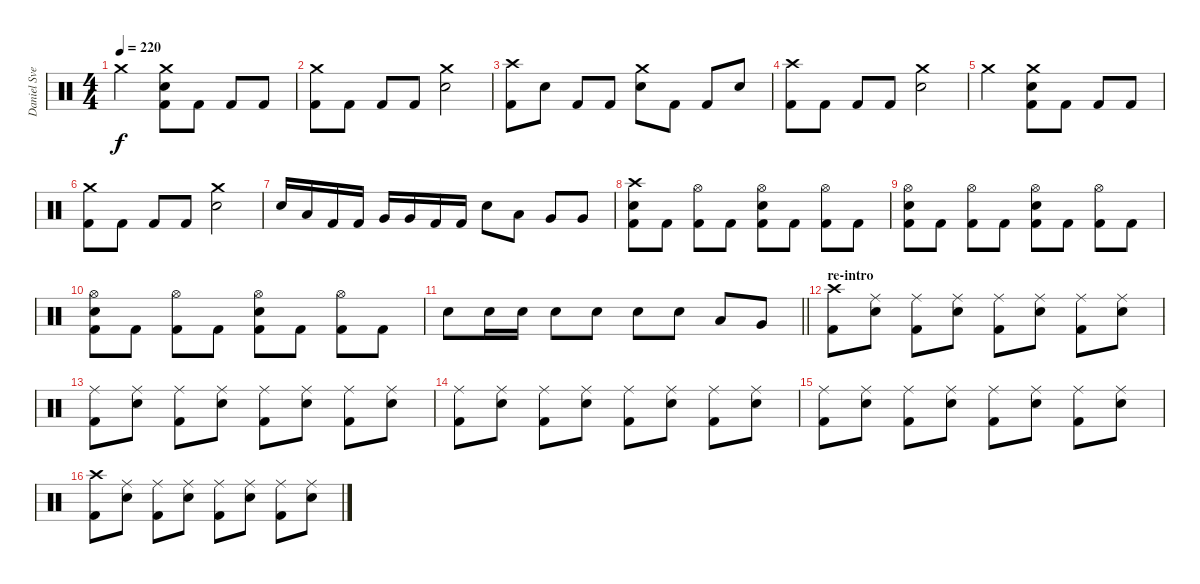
\track ("Daniel Svensson" "Daniel Sve") {instrument percussion}
\staff {score}
\articulation defaults
\ts (4 4)
\tempo 220
\clef neutral
\ks c "Crash medium (hit)".2{dy f}
("Crash medium (hit)" "Electric Snare (hit)" "Kick (hit) 2").8 "Kick (hit) 2".8 "Kick (hit) 2".8 "Kick (hit) 2".8 |
("Crash medium (hit)" "Kick (hit) 2").8 "Kick (hit) 2".8 "Kick (hit) 2".8 "Kick (hit) 2".8 ("Crash medium (hit)" "Electric Snare (hit)").2 |
("Crash high (hit)" "Kick (hit) 2").8 "Electric Snare (hit)".8 "Kick (hit) 2".8 "Kick (hit) 2".8 ("Crash medium (hit)" "Electric Snare (hit)").8 "Kick (hit) 2".8 "Kick (hit) 2".8 "Electric Snare (hit)".8 |
("Crash high (hit)" "Kick (hit) 2").8 "Kick (hit) 2".8 "Kick (hit) 2".8 "Kick (hit) 2".8 ("Crash medium (hit)" "Electric Snare (hit)").2 |
"Crash medium (hit)".2 ("Crash medium (hit)" "Electric Snare (hit)" "Kick (hit) 2").8 "Kick (hit) 2".8 "Kick (hit) 2".8 "Kick (hit) 2".8 |
("Crash medium (hit)" "Kick (hit) 2").8 "Kick (hit) 2".8 "Kick (hit) 2".8 "Kick (hit) 2".8 ("Crash medium (hit)" "Electric Snare (hit)").2 |
"Electric Snare (hit)".16 "Low Tom (hit)".16 "Kick (hit) 2".16 "Kick (hit) 2".16 "Very Low Tom (hit)".16 "Very Low Tom (hit)".16 "Kick (hit) 2".16 "Kick (hit) 2".16 "Electric Snare (hit)".8 "Low Tom (hit)".8 "Very Low Tom (hit)".8 "Very Low Tom (hit)".8 |
("Crash high (hit)" "Electric Snare (hit)" "Kick (hit) 2").8 "Kick (hit) 2".8 ("Hi-Hat (open)" "Kick (hit) 2").8 "Kick (hit) 2".8 ("Hi-Hat (open)" "Electric Snare (hit)" "Kick (hit) 2").8 "Kick (hit) 2".8 ("Hi-Hat (open)" "Kick (hit) 2").8 "Kick (hit) 2".8 |
("Hi-Hat (open)" "Electric Snare (hit)" "Kick (hit) 2").8 "Kick (hit) 2".8 ("Hi-Hat (open)" "Kick (hit) 2").8 "Kick (hit) 2".8 ("Hi-Hat (open)" "Electric Snare (hit)" "Kick (hit) 2").8 "Kick (hit) 2".8 ("Hi-Hat (open)" "Kick (hit) 2").8 "Kick (hit) 2".8 |
("Hi-Hat (open)" "Electric Snare (hit)" "Kick (hit) 2").8 "Kick (hit) 2".8 ("Hi-Hat (open)" "Kick (hit) 2").8 "Kick (hit) 2".8 ("Hi-Hat (open)" "Electric Snare (hit)" "Kick (hit) 2").8 "Kick (hit) 2".8 ("Hi-Hat (open)" "Kick (hit) 2").8 "Kick (hit) 2".8 |
\barLineRight lightlight "Electric Snare (hit)".8 "Electric Snare (hit)".16 "Electric Snare (hit)".16 "Electric Snare (hit)".8 "Electric Snare (hit)".8 "Electric Snare (hit)".8 "Electric Snare (hit)".8 "Low Tom (hit)".8 "Very Low Tom (hit)".8
|
\section ("" "re-intro")
("Crash high (hit)" "Kick (hit) 2").8 ("Ride (middle)" "Electric Snare (hit)").8 ("Ride (middle)" "Kick (hit) 2").8 ("Ride (middle)" "Electric Snare (hit)").8 ("Ride (middle)" "Kick (hit) 2").8 ("Ride (middle)" "Electric Snare (hit)").8 ("Ride (middle)" "Kick (hit) 2").8 ("Ride (middle)" "Electric Snare (hit)").8 |
("Ride (middle)" "Kick (hit) 2").8 ("Ride (middle)" "Electric Snare (hit)").8 ("Ride (middle)" "Kick (hit) 2").8 ("Ride (middle)" "Electric Snare (hit)").8 ("Ride (middle)" "Kick (hit) 2").8 ("Ride (middle)" "Electric Snare (hit)").8 ("Ride (middle)" "Kick (hit) 2").8 ("Ride (middle)" "Electric Snare (hit)").8 |
("Ride (middle)" "Kick (hit) 2").8 ("Ride (middle)" "Electric Snare (hit)").8 ("Ride (middle)" "Kick (hit) 2").8 ("Ride (middle)" "Electric Snare (hit)").8 ("Ride (middle)" "Kick (hit) 2").8 ("Ride (middle)" "Electric Snare (hit)").8 ("Ride (middle)" "Kick (hit) 2").8 ("Ride (middle)" "Electric Snare (hit)").8 |
("Ride (middle)" "Kick (hit) 2").8 ("Ride (middle)" "Electric Snare (hit)").8 ("Ride (middle)" "Kick (hit) 2").8 ("Ride (middle)" "Electric Snare (hit)").8 ("Ride (middle)" "Kick (hit) 2").8 ("Ride (middle)" "Electric Snare (hit)").8 ("Ride (middle)" "Kick (hit) 2").8 ("Ride (middle)" "Electric Snare (hit)").8 |
("Crash high (hit)" "Kick (hit) 2").8 ("Ride (middle)" "Electric Snare (hit)").8 ("Ride (middle)" "Kick (hit) 2").8 ("Ride (middle)" "Electric Snare (hit)").8 ("Ride (middle)" "Kick (hit) 2").8 ("Ride (middle)" "Electric Snare (hit)").8 ("Ride (middle)" "Kick (hit) 2").8 ("Ride (middle)" "Electric Snare (hit)").8
